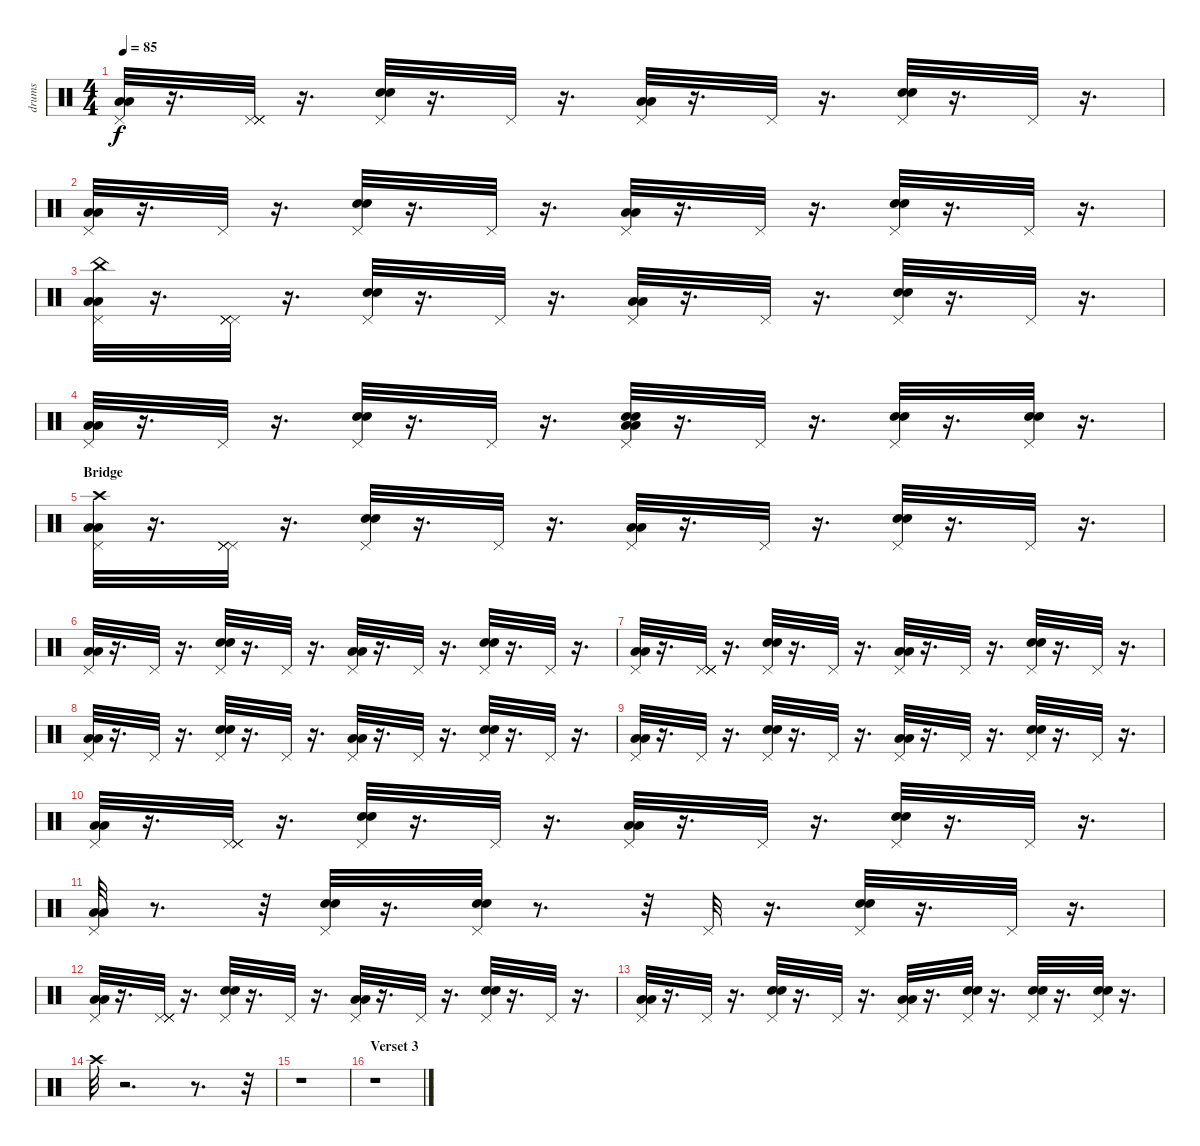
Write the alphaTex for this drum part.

\track ("drums" "drums") {instrument percussion}
\staff {score}
\articulation defaults
\ts (4 4)
\tempo 85
\clef neutral
\ks c
("Pedal Hi-Hat (hit)" "Low Floor Tom (hit)" "Low Tom (hit)").32{dy f} r.16{d} ("Pedal Hi-Hat (hit)" "Pedal Hi-Hat (hit)" "Pedal Hi-Hat (hit)" "Pedal Hi-Hat (hit)").32 r.16{d} ("Pedal Hi-Hat (hit)" "Electric Snare (hit)" "Snare (hit) 2").32 r.16{d} "Pedal Hi-Hat (hit)".32 r.16{d} ("Pedal Hi-Hat (hit)" "Low Tom (hit)" "Low Floor Tom (hit)").32 r.16{d} "Pedal Hi-Hat (hit)".32 r.16{d} ("Pedal Hi-Hat (hit)" "Snare (hit) 2" "Electric Snare (hit)").32 r.16{d} "Pedal Hi-Hat (hit)".32 r.16{d} |
("Low Floor Tom (hit)" "Low Tom (hit)" "Pedal Hi-Hat (hit)").32 r.16{d} "Pedal Hi-Hat (hit)".32 r.16{d} ("Snare (hit) 2" "Electric Snare (hit)" "Pedal Hi-Hat (hit)").32 r.16{d} "Pedal Hi-Hat (hit)".32 r.16{d} ("Low Tom (hit)" "Low Floor Tom (hit)" "Pedal Hi-Hat (hit)").32 r.16{d} "Pedal Hi-Hat (hit)".32 r.16{d} ("Snare (hit) 2" "Electric Snare (hit)" "Pedal Hi-Hat (hit)").32 r.16{d} "Pedal Hi-Hat (hit)".32 r.16{d} |
("Pedal Hi-Hat (hit)" "Low Floor Tom (hit)" "Low Tom (hit)" "China (hit)").32 r.16{d} ("Pedal Hi-Hat (hit)" "Pedal Hi-Hat (hit)" "Pedal Hi-Hat (hit)" "Pedal Hi-Hat (hit)").32 r.16{d} ("Pedal Hi-Hat (hit)" "Electric Snare (hit)" "Snare (hit) 2").32 r.16{d} "Pedal Hi-Hat (hit)".32 r.16{d} ("Pedal Hi-Hat (hit)" "Low Tom (hit)" "Low Floor Tom (hit)").32 r.16{d} "Pedal Hi-Hat (hit)".32 r.16{d} ("Pedal Hi-Hat (hit)" "Snare (hit) 2" "Electric Snare (hit)").32 r.16{d} "Pedal Hi-Hat (hit)".32 r.16{d} |
("Low Floor Tom (hit)" "Low Tom (hit)" "Pedal Hi-Hat (hit)").32 r.16{d} "Pedal Hi-Hat (hit)".32 r.16{d} ("Snare (hit) 2" "Electric Snare (hit)" "Pedal Hi-Hat (hit)").32 r.16{d} "Pedal Hi-Hat (hit)".32 r.16{d} ("Low Tom (hit)" "Low Floor Tom (hit)" "Pedal Hi-Hat (hit)" "Electric Snare (hit)" "Snare (hit) 2").32 r.16{d} "Pedal Hi-Hat (hit)".32 r.16{d} ("Snare (hit) 2" "Electric Snare (hit)" "Pedal Hi-Hat (hit)").32 r.16{d} ("Snare (hit) 2" "Electric Snare (hit)" "Pedal Hi-Hat (hit)").32 r.16{d} |
\section ("" "Bridge")
("Crash high (hit)" "Pedal Hi-Hat (hit)" "Low Floor Tom (hit)" "Low Tom (hit)").32 r.16{d} ("Pedal Hi-Hat (hit)" "Pedal Hi-Hat (hit)" "Pedal Hi-Hat (hit)" "Pedal Hi-Hat (hit)").32 r.16{d} ("Pedal Hi-Hat (hit)" "Electric Snare (hit)" "Snare (hit) 2").32 r.16{d} "Pedal Hi-Hat (hit)".32 r.16{d} ("Pedal Hi-Hat (hit)" "Low Tom (hit)" "Low Floor Tom (hit)").32 r.16{d} "Pedal Hi-Hat (hit)".32 r.16{d} ("Pedal Hi-Hat (hit)" "Snare (hit) 2" "Electric Snare (hit)").32 r.16{d} "Pedal Hi-Hat (hit)".32 r.16{d} |
("Low Floor Tom (hit)" "Low Tom (hit)" "Pedal Hi-Hat (hit)").32 r.16{d} "Pedal Hi-Hat (hit)".32 r.16{d} ("Snare (hit) 2" "Electric Snare (hit)" "Pedal Hi-Hat (hit)").32 r.16{d} "Pedal Hi-Hat (hit)".32 r.16{d} ("Low Tom (hit)" "Low Floor Tom (hit)" "Pedal Hi-Hat (hit)").32 r.16{d} "Pedal Hi-Hat (hit)".32 r.16{d} ("Snare (hit) 2" "Electric Snare (hit)" "Pedal Hi-Hat (hit)").32 r.16{d} "Pedal Hi-Hat (hit)".32 r.16{d} |
("Pedal Hi-Hat (hit)" "Low Floor Tom (hit)" "Low Tom (hit)").32 r.16{d} ("Pedal Hi-Hat (hit)" "Pedal Hi-Hat (hit)" "Pedal Hi-Hat (hit)" "Pedal Hi-Hat (hit)").32 r.16{d} ("Pedal Hi-Hat (hit)" "Electric Snare (hit)" "Snare (hit) 2").32 r.16{d} "Pedal Hi-Hat (hit)".32 r.16{d} ("Pedal Hi-Hat (hit)" "Low Tom (hit)" "Low Floor Tom (hit)").32 r.16{d} "Pedal Hi-Hat (hit)".32 r.16{d} ("Pedal Hi-Hat (hit)" "Snare (hit) 2" "Electric Snare (hit)").32 r.16{d} "Pedal Hi-Hat (hit)".32 r.16{d} |
("Low Floor Tom (hit)" "Low Tom (hit)" "Pedal Hi-Hat (hit)").32 r.16{d} "Pedal Hi-Hat (hit)".32 r.16{d} ("Snare (hit) 2" "Electric Snare (hit)" "Pedal Hi-Hat (hit)").32 r.16{d} "Pedal Hi-Hat (hit)".32 r.16{d} ("Low Tom (hit)" "Low Floor Tom (hit)" "Pedal Hi-Hat (hit)").32 r.16{d} "Pedal Hi-Hat (hit)".32 r.16{d} ("Snare (hit) 2" "Electric Snare (hit)" "Pedal Hi-Hat (hit)").32 r.16{d} "Pedal Hi-Hat (hit)".32 r.16{d} |
("Low Floor Tom (hit)" "Low Tom (hit)" "Pedal Hi-Hat (hit)").32 r.16{d} "Pedal Hi-Hat (hit)".32 r.16{d} ("Snare (hit) 2" "Electric Snare (hit)" "Pedal Hi-Hat (hit)").32 r.16{d} "Pedal Hi-Hat (hit)".32 r.16{d} ("Low Tom (hit)" "Low Floor Tom (hit)" "Pedal Hi-Hat (hit)").32 r.16{d} "Pedal Hi-Hat (hit)".32 r.16{d} ("Snare (hit) 2" "Electric Snare (hit)" "Pedal Hi-Hat (hit)").32 r.16{d} "Pedal Hi-Hat (hit)".32 r.16{d} |
("Pedal Hi-Hat (hit)" "Low Floor Tom (hit)" "Low Tom (hit)").32 r.16{d} ("Pedal Hi-Hat (hit)" "Pedal Hi-Hat (hit)" "Pedal Hi-Hat (hit)" "Pedal Hi-Hat (hit)").32 r.16{d} ("Pedal Hi-Hat (hit)" "Electric Snare (hit)" "Snare (hit) 2").32 r.16{d} "Pedal Hi-Hat (hit)".32 r.16{d} ("Pedal Hi-Hat (hit)" "Low Tom (hit)" "Low Floor Tom (hit)").32 r.16{d} "Pedal Hi-Hat (hit)".32 r.16{d} ("Pedal Hi-Hat (hit)" "Snare (hit) 2" "Electric Snare (hit)").32 r.16{d} "Pedal Hi-Hat (hit)".32 r.16{d} |
("Low Floor Tom (hit)" "Low Tom (hit)" "Pedal Hi-Hat (hit)").32 r.8{d} r.32 ("Snare (hit) 2" "Electric Snare (hit)" "Pedal Hi-Hat (hit)").32 r.16{d} ("Pedal Hi-Hat (hit)" "Electric Snare (hit)" "Snare (hit) 2").32 r.8{d} r.32 "Pedal Hi-Hat (hit)".32 r.16{d} ("Snare (hit) 2" "Electric Snare (hit)" "Pedal Hi-Hat (hit)").32 r.16{d} "Pedal Hi-Hat (hit)".32 r.16{d} |
("Pedal Hi-Hat (hit)" "Low Floor Tom (hit)" "Low Tom (hit)").32 r.16{d} ("Pedal Hi-Hat (hit)" "Pedal Hi-Hat (hit)" "Pedal Hi-Hat (hit)" "Pedal Hi-Hat (hit)").32 r.16{d} ("Pedal Hi-Hat (hit)" "Electric Snare (hit)" "Snare (hit) 2").32 r.16{d} "Pedal Hi-Hat (hit)".32 r.16{d} ("Pedal Hi-Hat (hit)" "Low Tom (hit)" "Low Floor Tom (hit)").32 r.16{d} "Pedal Hi-Hat (hit)".32 r.16{d} ("Pedal Hi-Hat (hit)" "Snare (hit) 2" "Electric Snare (hit)").32 r.16{d} "Pedal Hi-Hat (hit)".32 r.16{d} |
("Low Floor Tom (hit)" "Low Tom (hit)" "Pedal Hi-Hat (hit)").32 r.16{d} "Pedal Hi-Hat (hit)".32 r.16{d} ("Snare (hit) 2" "Electric Snare (hit)" "Pedal Hi-Hat (hit)").32 r.16{d} "Pedal Hi-Hat (hit)".32 r.16{d} ("Low Tom (hit)" "Low Floor Tom (hit)" "Pedal Hi-Hat (hit)").32 r.16{d} ("Snare (hit) 2" "Pedal Hi-Hat (hit)" "Electric Snare (hit)").32 r.16{d} ("Snare (hit) 2" "Electric Snare (hit)" "Pedal Hi-Hat (hit)").32 r.16{d} ("Electric Snare (hit)" "Pedal Hi-Hat (hit)" "Snare (hit) 2").32 r.16{d} |
"Crash high (hit)".32 r.2{d} r.8{d} r.32 |
r.1 |
\section ("" "Verset 3")
r.1
